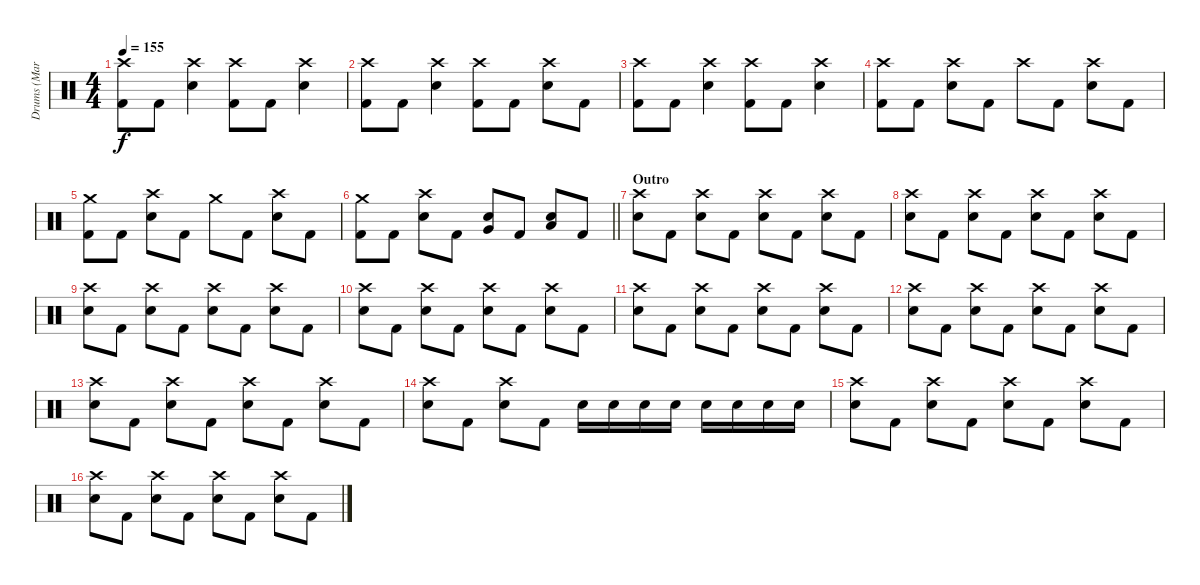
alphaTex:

\track ("Drums (Mark)" "Drums (Mar") {instrument percussion}
\staff {score}
\articulation defaults
\ts (4 4)
\tempo 155
\clef neutral
\ks c
("Crash high (hit)" "Kick (hit) 2").8{dy f} "Kick (hit) 2".8 ("Crash high (hit)" "Snare (hit) 2").4 ("Crash high (hit)" "Kick (hit) 2").8 "Kick (hit) 2".8 ("Crash high (hit)" "Snare (hit) 2").4 |
("Crash high (hit)" "Kick (hit) 2").8 "Kick (hit) 2".8 ("Crash high (hit)" "Snare (hit) 2").4 ("Crash high (hit)" "Kick (hit) 2").8 "Kick (hit) 2".8 ("Crash high (hit)" "Snare (hit) 2").8 "Kick (hit) 2".8 |
("Crash high (hit)" "Kick (hit) 2").8 "Kick (hit) 2".8 ("Crash high (hit)" "Snare (hit) 2").4 ("Crash high (hit)" "Kick (hit) 2").8 "Kick (hit) 2".8 ("Crash high (hit)" "Snare (hit) 2").4 |
("Crash high (hit)" "Kick (hit) 2").8 "Kick (hit) 2".8 ("Crash high (hit)" "Snare (hit) 2").8 "Kick (hit) 2".8 "Crash high (hit)".8 "Kick (hit) 2".8 ("Crash high (hit)" "Snare (hit) 2").8 "Kick (hit) 2".8 |
("Crash medium (hit)" "Kick (hit) 2").8 "Kick (hit) 2".8 ("Crash high (hit)" "Snare (hit) 2").8 "Kick (hit) 2".8 "Crash medium (hit)".8 "Kick (hit) 2".8 ("Crash high (hit)" "Snare (hit) 2").8 "Kick (hit) 2".8 |
\barLineRight lightlight
("Crash medium (hit)" "Kick (hit) 2").8 "Kick (hit) 2".8 ("Crash high (hit)" "Snare (hit) 2").8 "Kick (hit) 2".8 ("Snare (hit) 2" "Very Low Tom (hit)").8 "Kick (hit) 2".8 ("Snare (hit) 2" "Low Floor Tom (hit)").8 "Kick (hit) 2".8 |
\section ("" "Outro")
("Crash high (hit)" "Snare (hit) 2").8 "Kick (hit) 2".8 ("Crash high (hit)" "Snare (hit) 2").8 "Kick (hit) 2".8 ("Crash high (hit)" "Snare (hit) 2").8 "Kick (hit) 2".8 ("Crash high (hit)" "Snare (hit) 2").8 "Kick (hit) 2".8 |
("Crash high (hit)" "Snare (hit) 2").8 "Kick (hit) 2".8 ("Crash high (hit)" "Snare (hit) 2").8 "Kick (hit) 2".8 ("Crash high (hit)" "Snare (hit) 2").8 "Kick (hit) 2".8 ("Crash high (hit)" "Snare (hit) 2").8 "Kick (hit) 2".8 |
("Crash high (hit)" "Snare (hit) 2").8 "Kick (hit) 2".8 ("Crash high (hit)" "Snare (hit) 2").8 "Kick (hit) 2".8 ("Crash high (hit)" "Snare (hit) 2").8 "Kick (hit) 2".8 ("Crash high (hit)" "Snare (hit) 2").8 "Kick (hit) 2".8 |
("Crash high (hit)" "Snare (hit) 2").8 "Kick (hit) 2".8 ("Crash high (hit)" "Snare (hit) 2").8 "Kick (hit) 2".8 ("Crash high (hit)" "Snare (hit) 2").8 "Kick (hit) 2".8 ("Crash high (hit)" "Snare (hit) 2").8 "Kick (hit) 2".8 |
("Crash high (hit)" "Snare (hit) 2").8 "Kick (hit) 2".8 ("Crash high (hit)" "Snare (hit) 2").8 "Kick (hit) 2".8 ("Crash high (hit)" "Snare (hit) 2").8 "Kick (hit) 2".8 ("Crash high (hit)" "Snare (hit) 2").8 "Kick (hit) 2".8 |
("Crash high (hit)" "Snare (hit) 2").8 "Kick (hit) 2".8 ("Crash high (hit)" "Snare (hit) 2").8 "Kick (hit) 2".8 ("Crash high (hit)" "Snare (hit) 2").8 "Kick (hit) 2".8 ("Crash high (hit)" "Snare (hit) 2").8 "Kick (hit) 2".8 |
("Crash high (hit)" "Snare (hit) 2").8 "Kick (hit) 2".8 ("Crash high (hit)" "Snare (hit) 2").8 "Kick (hit) 2".8 ("Crash high (hit)" "Snare (hit) 2").8 "Kick (hit) 2".8 ("Crash high (hit)" "Snare (hit) 2").8 "Kick (hit) 2".8 |
("Crash high (hit)" "Snare (hit) 2").8 "Kick (hit) 2".8 ("Crash high (hit)" "Snare (hit) 2").8 "Kick (hit) 2".8 "Snare (hit) 2".16 "Snare (hit) 2".16 "Snare (hit) 2".16 "Snare (hit) 2".16 "Snare (hit) 2".16 "Snare (hit) 2".16 "Snare (hit) 2".16 "Snare (hit) 2".16 |
("Crash high (hit)" "Snare (hit) 2").8 "Kick (hit) 2".8 ("Crash high (hit)" "Snare (hit) 2").8 "Kick (hit) 2".8 ("Crash high (hit)" "Snare (hit) 2").8 "Kick (hit) 2".8 ("Crash high (hit)" "Snare (hit) 2").8 "Kick (hit) 2".8 |
("Crash high (hit)" "Snare (hit) 2").8 "Kick (hit) 2".8 ("Crash high (hit)" "Snare (hit) 2").8 "Kick (hit) 2".8 ("Crash high (hit)" "Snare (hit) 2").8 "Kick (hit) 2".8 ("Crash high (hit)" "Snare (hit) 2").8 "Kick (hit) 2".8
